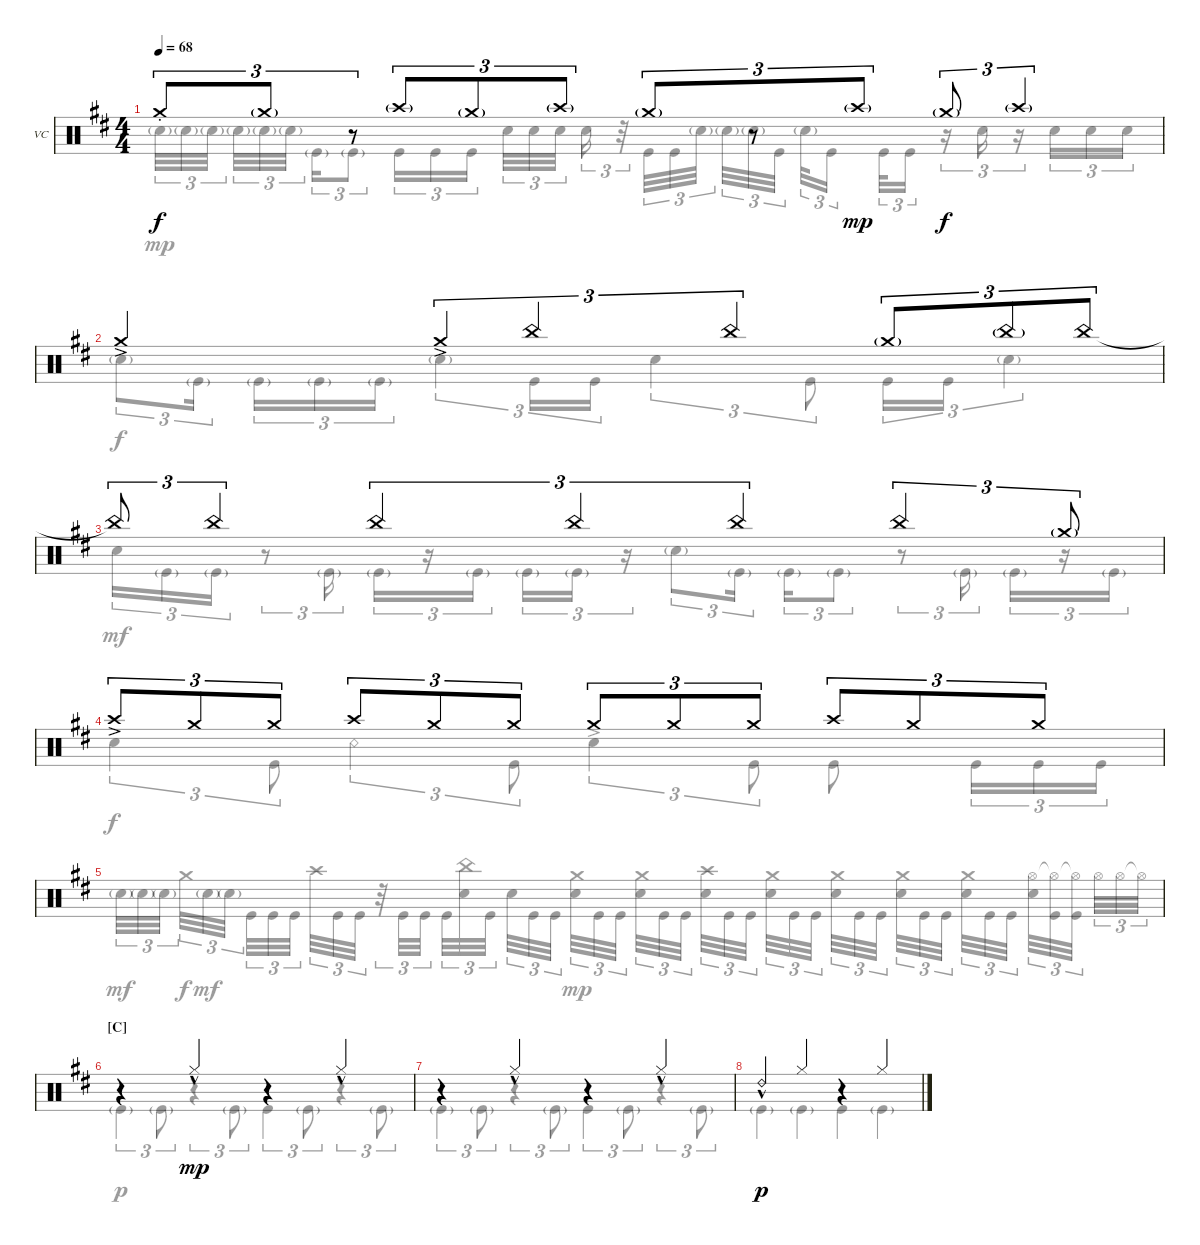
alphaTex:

\defaultSystemsLayout 4
\bracketExtendMode nobrackets
\firstSystemTrackNameOrientation horizontal
\otherSystemsTrackNameOrientation horizontal
\track ("Vinnie Colaiuta" "VC") {instrument percussion}
\staff {score}
\articulation defaults
\voice
\ts (4 4)
\tempo 68
\clef neutral
\ks bminor "Crash medium (hit)"{st}.8{tu (3 2) dy f} "Crash medium (hit)"{g}.8{tu (3 2)}
r.8{tu (3 2)} "Crash high (hit)"{g}.8{tu (3 2)} "Crash medium (hit)"{g}.8{tu (3 2)} "Crash high (hit)"{g}.8{tu (3 2)} "Crash medium (hit)"{g}.8{tu (3 2)} r.8{tu (3 2)} "Crash high (hit)"{g}.8{tu (3 2) dy mp} "Crash medium (hit)"{g}.8{tu (3 2) dy f} "Crash high (hit)"{g}.4{tu (3 2)} |
"Crash medium (hit)"{ac}.4 "Crash medium (hit)"{ac}.4{tu (3 2)} "China (hit)".4{tu (3 2)} "China (hit)".4{tu (3 2)} "Crash medium (hit)"{g}.8{tu (3 2)} "China (hit)"{g}.8{tu (3 2)} "China (hit)".8{tu (3 2)} |
"China (hit)"{t}.8{tu (3 2)} "China (hit)".4{tu (3 2)} "China (hit)".4{tu (3 2)} "China (hit)".4{tu (3 2)} "China (hit)".4{tu (3 2)} "China (hit)".4{tu (3 2)} "Crash medium (hit)"{g}.8{tu (3 2)} |
"Crash high (hit)"{ac}.8{tu (3 2)} "Crash medium (hit)".8{tu (3 2)} "Crash medium (hit)".8{tu (3 2)} "Crash high (hit)".8{tu (3 2)} "Crash medium (hit)".8{tu (3 2)} "Crash medium (hit)".8{tu (3 2)} "Crash medium (hit)".8{tu (3 2)} "Crash medium (hit)".8{tu (3 2)} "Crash medium (hit)".8{tu (3 2)} "Crash high (hit)".8{tu (3 2)} "Crash medium (hit)".8{tu (3 2)} "Crash medium (hit)".8{tu (3 2)} |
|
\section ("C" "")
r.4 "Hi-Hat (closed)"{hac}.4{dy mp} r.4 "Hi-Hat (closed)"{hac}.4 |
r.4 "Hi-Hat (closed)"{hac}.4 r.4 "Hi-Hat (closed)"{hac}.4 |
"Ride (bell) 2"{hac}.4{dy p} "Hi-Hat (closed)".4 r.4 "Hi-Hat (closed)".4
\voice
\clef neutral
\ottava regular
\simile none
\ks bminor "Snare (hit) 2"{g}.32{tu (3 2) dy mp} "Snare (hit) 2"{g}.32{tu (3 2)} "Snare (hit) 2"{g}.32{tu (3 2)} "Snare (hit) 2"{g}.32{tu (3 2)} "Snare (hit) 2"{g}.32{tu (3 2)} "Snare (hit) 2"{g}.32{tu (3 2)} "Kick (hit)"{g}.16{tu (3 2)} "Kick (hit)"{g}.8{tu (3 2)} "Kick (hit)".16{tu (3 2)} "Kick (hit)".16{tu (3 2)} "Kick (hit)".16{tu (3 2)} "Snare (hit) 2".32{tu (3 2)} "Snare (hit) 2".32{tu (3 2)} "Snare (hit) 2".32{tu (3 2)} "Snare (hit) 2".16{tu (3 2)}
r.32{tu (3 2)} "Kick (hit)".32{tu (3 2)} "Kick (hit)".32{tu (3 2)} "Snare (hit) 2"{g}.32{tu (3 2)} "Snare (hit) 2"{g}.32{tu (3 2)} "Snare (hit) 2"{g}.32{tu (3 2)} "Kick (hit)".32{tu (3 2)} "Snare (hit) 2"{g}.32{tu (3 2)} "Kick (hit)".16{tu (3 2)} "Kick (hit)".32{tu (3 2)} "Kick (hit)".16{tu (3 2)} r.16{tu (3 2)} "Snare (hit) 2".16{tu (3 2)} r.16{tu (3 2)} "Snare (hit) 2".16{tu (3 2)} "Snare (hit) 2".16{tu (3 2)} "Snare (hit) 2".16{tu (3 2)} |
"Snare (hit) 2"{g}.8{tu (3 2) dy f} "Kick (hit)"{g}.16{tu (3 2)} "Kick (hit)"{g}.16{tu (3 2)} "Kick (hit)"{g}.16{tu (3 2)} "Kick (hit)"{g}.16{tu (3 2)} "Snare (hit) 2"{g}.4{tu (3 2)} "Kick (hit)".16{tu (3 2)} "Kick (hit)".16{tu (3 2)} "Snare (hit) 2".4{tu (3 2)} "Kick (hit)".8{tu (3 2)} "Kick (hit)".16{tu (3 2)} "Kick (hit)".16{tu (3 2)} "Snare (hit) 2"{g}.4{tu (3 2)} |
"Snare (hit) 2".16{tu (3 2) dy mf} "Kick (hit)"{g}.16{tu (3 2)} "Kick (hit)"{g}.16{tu (3 2)} r.8{tu (3 2)} "Kick (hit)"{g}.16{tu (3 2)} "Kick (hit)"{g}.16{tu (3 2)} r.16{tu (3 2)} "Kick (hit)"{g}.16{tu (3 2)} "Kick (hit)"{g}.16{tu (3 2)} "Kick (hit)"{g}.16{tu (3 2)} r.16{tu (3 2)} "Snare (hit) 2"{g}.8{tu (3 2)} "Kick (hit)"{g}.16{tu (3 2)} "Kick (hit)"{g}.16{tu (3 2)} "Kick (hit)"{g}.8{tu (3 2)} r.8{tu (3 2)} "Kick (hit)"{g}.16{tu (3 2)} "Kick (hit)"{g}.16{tu (3 2)} r.16{tu (3 2)} "Kick (hit)"{g}.16{tu (3 2)} |
"Snare (hit) 2".4{tu (3 2) dy f} "Kick (hit)".8{tu (3 2)} "Snare (rim shot)".4{tu (3 2)} "Kick (hit)".8{tu (3 2)} "Snare (hit) 2"{ac}.4{tu (3 2)} "Kick (hit)".8{tu (3 2)} "Kick (hit)".8 "Kick (hit)".16{tu (3 2)} "Kick (hit)".16{tu (3 2)} "Kick (hit)".16{tu (3 2)} |
"Snare (hit) 2"{g}.32{tu (3 2) dy mf} "Snare (hit) 2"{g}.32{tu (3 2)} "Snare (hit) 2"{g}.32{tu (3 2)} "Crash medium (hit)".32{tu (3 2) dy f} "Snare (hit) 2"{g}.32{tu (3 2) dy mf} "Snare (hit) 2"{g}.32{tu (3 2)} "Kick (hit)".32{tu (3 2)} "Kick (hit)".32{tu (3 2)} "Kick (hit)".32{tu (3 2)} "Crash high (hit)".32{tu (3 2)} "Kick (hit)".32{tu (3 2)} "Kick (hit)".32{tu (3 2)} r.32{tu (3 2)} "Kick (hit)".32{tu (3 2)} "Kick (hit)".32{tu (3 2)} "Kick (hit)".32{tu (3 2)} ("Snare (hit) 2" "China (hit)").32{tu (3 2)} "Kick (hit)".32{tu (3 2)} "Snare (hit) 2".32{tu (3 2)} "Kick (hit)".32{tu (3 2)} "Kick (hit)".32{tu (3 2)} ("Snare (hit) 2" "Crash medium (hit)").32{tu (3 2) dy mp} "Kick (hit)".32{tu (3 2)} "Kick (hit)".32{tu (3 2)} ("Snare (hit) 2" "Crash medium (hit)").32{tu (3 2)} "Kick (hit)".32{tu (3 2)} "Kick (hit)".32{tu (3 2)} ("Snare (hit) 2" "Crash high (hit)").32{tu (3 2)} "Kick (hit)".32{tu (3 2)} "Kick (hit)".32{tu (3 2)} ("Snare (hit) 2" "Crash medium (hit)").32{tu (3 2)} "Kick (hit)".32{tu (3 2)} "Kick (hit)".32{tu (3 2)} ("Snare (hit) 2" "Crash medium (hit)").32{tu (3 2)} "Kick (hit)".32{tu (3 2)} "Kick (hit)".32{tu (3 2)} ("Snare (hit) 2" "Crash medium (hit)").32{tu (3 2)} "Kick (hit)".32{tu (3 2)} "Kick (hit)".32{tu (3 2)} ("Snare (hit) 2" "Crash medium (hit)").32{tu (3 2)} "Kick (hit)".32{tu (3 2)} "Kick (hit)".32{tu (3 2)} ("Snare (hit) 2" "Hi-Hat (open)").32{tu (3 2)} ("Kick (hit)" "Hi-Hat (open)"{t}).32{tu (3 2)} ("Kick (hit)" "Hi-Hat (open)"{t}).32{tu (3 2)} "Hi-Hat (open)".32{tu (3 2)} "Hi-Hat (open)".32{tu (3 2)} "Hi-Hat (open)"{t}.32{tu (3 2)} |
"Kick (hit)"{g}.4{tu (3 2) dy p} "Kick (hit)"{g}.8{tu (3 2)} r.4{tu (3 2)} "Kick (hit)"{g}.8{tu (3 2)} "Kick (hit)".4{tu (3 2)} "Kick (hit)"{g}.8{tu (3 2)} r.4{tu (3 2)} "Kick (hit)"{g}.8{tu (3 2)} |
"Kick (hit)"{g}.4{tu (3 2)} "Kick (hit)"{g}.8{tu (3 2)} r.4{tu (3 2)} "Kick (hit)"{g}.8{tu (3 2)} "Kick (hit)".4{tu (3 2)} "Kick (hit)"{g}.8{tu (3 2)} r.4{tu (3 2)} "Kick (hit)"{g}.8{tu (3 2)} |
"Kick (hit)"{g}.4 "Kick (hit)"{g}.4 "Kick (hit)".4 "Kick (hit)"{g}.4
